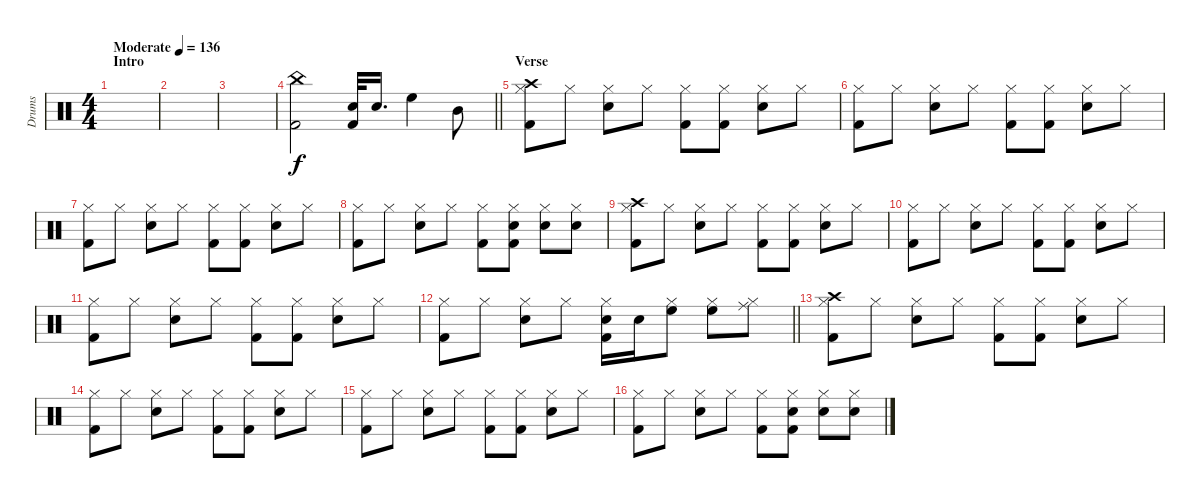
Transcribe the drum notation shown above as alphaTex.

\track ("Drums" "Drums") {instrument percussion}
\staff {score}
\articulation defaults
\ts (4 4)
\section ("" "Intro")
\tempo (136 "Moderate")
\clef neutral
\ks c
|
|
|
\barLineRight lightlight
("China (hit)" "Kick (hit) 2").2 ("Electric Snare (hit)" "Kick (hit) 2").32 "Electric Snare (hit)".16{d} "High Floor Tom (hit)".4 "Mid Tom (hit)".8 |
\section ("" "Verse")
("Crash high (hit)" "Hi-Hat (closed)" "Kick (hit) 2").8 "Hi-Hat (closed)".8 ("Hi-Hat (closed)" "Electric Snare (hit)").8 "Hi-Hat (closed)".8 ("Hi-Hat (closed)" "Kick (hit) 2").8 ("Hi-Hat (closed)" "Kick (hit) 2").8 ("Hi-Hat (closed)" "Electric Snare (hit)").8 "Hi-Hat (closed)".8 |
("Hi-Hat (closed)" "Kick (hit) 2").8 "Hi-Hat (closed)".8 ("Hi-Hat (closed)" "Electric Snare (hit)").8 "Hi-Hat (closed)".8 ("Hi-Hat (closed)" "Kick (hit) 2").8 ("Hi-Hat (closed)" "Kick (hit) 2").8 ("Hi-Hat (closed)" "Electric Snare (hit)").8 "Hi-Hat (closed)".8 |
("Hi-Hat (closed)" "Kick (hit) 2").8 "Hi-Hat (closed)".8 ("Hi-Hat (closed)" "Electric Snare (hit)").8 "Hi-Hat (closed)".8 ("Hi-Hat (closed)" "Kick (hit) 2").8 ("Hi-Hat (closed)" "Kick (hit) 2").8 ("Hi-Hat (closed)" "Electric Snare (hit)").8 "Hi-Hat (closed)".8 |
("Hi-Hat (closed)" "Kick (hit) 2").8 "Hi-Hat (closed)".8 ("Hi-Hat (closed)" "Electric Snare (hit)").8 "Hi-Hat (closed)".8 ("Hi-Hat (closed)" "Kick (hit) 2").8 ("Hi-Hat (closed)" "Electric Snare (hit)" "Kick (hit) 2").8 ("Hi-Hat (closed)" "Electric Snare (hit)").8 ("Hi-Hat (closed)" "Electric Snare (hit)").8 |
("Crash high (hit)" "Hi-Hat (closed)" "Kick (hit) 2").8 "Hi-Hat (closed)".8 ("Hi-Hat (closed)" "Electric Snare (hit)").8 "Hi-Hat (closed)".8 ("Hi-Hat (closed)" "Kick (hit) 2").8 ("Hi-Hat (closed)" "Kick (hit) 2").8 ("Hi-Hat (closed)" "Electric Snare (hit)").8 "Hi-Hat (closed)".8 |
("Hi-Hat (closed)" "Kick (hit) 2").8 "Hi-Hat (closed)".8 ("Hi-Hat (closed)" "Electric Snare (hit)").8 "Hi-Hat (closed)".8 ("Hi-Hat (closed)" "Kick (hit) 2").8 ("Hi-Hat (closed)" "Kick (hit) 2").8 ("Hi-Hat (closed)" "Electric Snare (hit)").8 "Hi-Hat (closed)".8 |
("Hi-Hat (closed)" "Kick (hit) 2").8 "Hi-Hat (closed)".8 ("Hi-Hat (closed)" "Electric Snare (hit)").8 "Hi-Hat (closed)".8 ("Hi-Hat (closed)" "Kick (hit) 2").8 ("Hi-Hat (closed)" "Kick (hit) 2").8 ("Hi-Hat (closed)" "Electric Snare (hit)").8 "Hi-Hat (closed)".8 |
\barLineRight lightlight
("Hi-Hat (closed)" "Kick (hit) 2").8 "Hi-Hat (closed)".8 ("Hi-Hat (closed)" "Electric Snare (hit)").8 "Hi-Hat (closed)".8 ("Hi-Hat (closed)" "Electric Snare (hit)" "Kick (hit) 2").16 "Electric Snare (hit)".16 ("Hi-Hat (closed)" "High Floor Tom (hit)").8 ("Hi-Hat (closed)" "High Floor Tom (hit)").8 ("Hi-Hat (closed)" "Ride (middle)").8 |
("Crash high (hit)" "Hi-Hat (closed)" "Kick (hit) 2").8 "Hi-Hat (closed)".8 ("Hi-Hat (closed)" "Electric Snare (hit)").8 "Hi-Hat (closed)".8 ("Hi-Hat (closed)" "Kick (hit) 2").8 ("Hi-Hat (closed)" "Kick (hit) 2").8 ("Hi-Hat (closed)" "Electric Snare (hit)").8 "Hi-Hat (closed)".8 |
("Hi-Hat (closed)" "Kick (hit) 2").8 "Hi-Hat (closed)".8 ("Hi-Hat (closed)" "Electric Snare (hit)").8 "Hi-Hat (closed)".8 ("Hi-Hat (closed)" "Kick (hit) 2").8 ("Hi-Hat (closed)" "Kick (hit) 2").8 ("Hi-Hat (closed)" "Electric Snare (hit)").8 "Hi-Hat (closed)".8 |
("Hi-Hat (closed)" "Kick (hit) 2").8 "Hi-Hat (closed)".8 ("Hi-Hat (closed)" "Electric Snare (hit)").8 "Hi-Hat (closed)".8 ("Hi-Hat (closed)" "Kick (hit) 2").8 ("Hi-Hat (closed)" "Kick (hit) 2").8 ("Hi-Hat (closed)" "Electric Snare (hit)").8 "Hi-Hat (closed)".8 |
("Hi-Hat (closed)" "Kick (hit) 2").8 "Hi-Hat (closed)".8 ("Hi-Hat (closed)" "Electric Snare (hit)").8 "Hi-Hat (closed)".8 ("Hi-Hat (closed)" "Kick (hit) 2").8 ("Hi-Hat (closed)" "Electric Snare (hit)" "Kick (hit) 2").8 ("Hi-Hat (closed)" "Electric Snare (hit)").8 ("Hi-Hat (closed)" "Electric Snare (hit)").8
